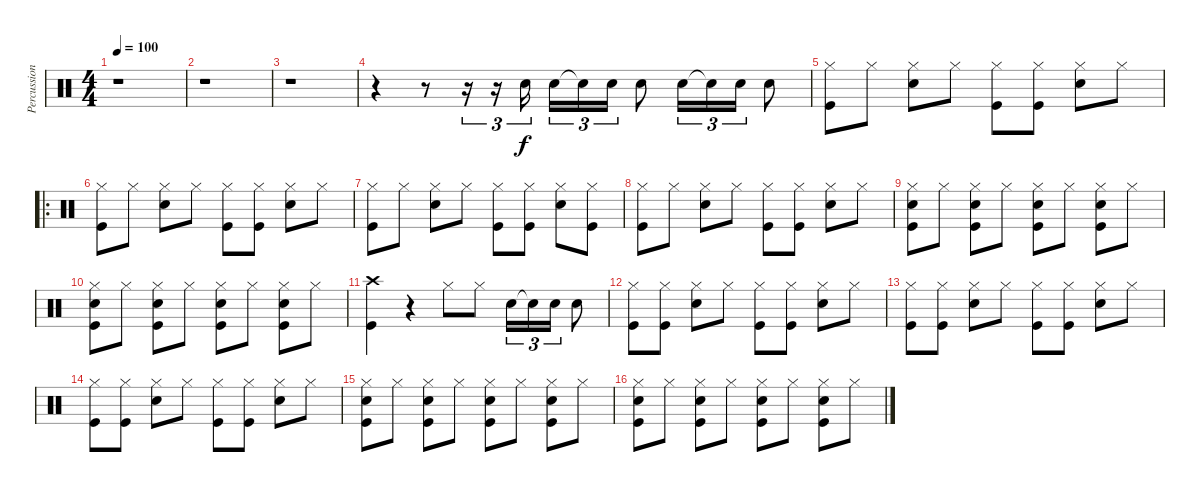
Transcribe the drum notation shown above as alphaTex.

\track ("Percussion" "Percussion") {instrument percussion}
\staff {score}
\articulation defaults
\ts (4 4)
\tempo 100
\clef neutral
\ks c
r.1{dy f} |
r.1 |
r.1 |
r.4 r.8 r.16{tu (3 2)} r.16{tu (3 2)} "Snare (hit) 2".16{tu (3 2)} "Snare (hit) 2".16{tu (3 2)} "Snare (hit)"{t}.16{tu (3 2)} "Snare (hit) 2".16{tu (3 2)} "Snare (hit) 2".8 "Snare (hit) 2".16{tu (3 2)} "Snare (hit)"{t}.16{tu (3 2)} "Snare (hit) 2".16{tu (3 2)} "Snare (hit) 2".8 |
("Hi-Hat (closed)" "Kick (hit)").8 "Hi-Hat (closed)".8 ("Hi-Hat (closed)" "Snare (hit) 2").8 "Hi-Hat (closed)".8 ("Hi-Hat (closed)" "Kick (hit)").8 ("Hi-Hat (closed)" "Kick (hit)").8 ("Hi-Hat (closed)" "Snare (hit) 2").8 "Hi-Hat (closed)".8 |
\ro
("Hi-Hat (closed)" "Kick (hit)").8 "Hi-Hat (closed)".8 ("Hi-Hat (closed)" "Snare (hit) 2").8 "Hi-Hat (closed)".8 ("Hi-Hat (closed)" "Kick (hit)").8 ("Hi-Hat (closed)" "Kick (hit)").8 ("Hi-Hat (closed)" "Snare (hit) 2").8 "Hi-Hat (closed)".8 |
("Hi-Hat (closed)" "Kick (hit)").8 "Hi-Hat (closed)".8 ("Hi-Hat (closed)" "Snare (hit) 2").8 "Hi-Hat (closed)".8 ("Hi-Hat (closed)" "Kick (hit)").8 ("Hi-Hat (closed)" "Kick (hit)").8 ("Hi-Hat (closed)" "Snare (hit) 2").8 ("Hi-Hat (closed)" "Kick (hit)").8 |
("Hi-Hat (closed)" "Kick (hit)").8 "Hi-Hat (closed)".8 ("Hi-Hat (closed)" "Snare (hit) 2").8 "Hi-Hat (closed)".8 ("Hi-Hat (closed)" "Kick (hit)").8 ("Hi-Hat (closed)" "Kick (hit)").8 ("Hi-Hat (closed)" "Snare (hit) 2").8 "Hi-Hat (closed)".8 |
("Hi-Hat (closed)" "Snare (hit) 2" "Kick (hit)").8 "Hi-Hat (closed)".8 ("Hi-Hat (closed)" "Snare (hit) 2" "Kick (hit)").8 "Hi-Hat (closed)".8 ("Hi-Hat (closed)" "Snare (hit) 2" "Kick (hit)").8 "Hi-Hat (closed)".8 ("Hi-Hat (closed)" "Snare (hit) 2" "Kick (hit)").8 "Hi-Hat (closed)".8 |
("Hi-Hat (closed)" "Snare (hit) 2" "Kick (hit)").8 "Hi-Hat (closed)".8 ("Hi-Hat (closed)" "Snare (hit) 2" "Kick (hit)").8 "Hi-Hat (closed)".8 ("Hi-Hat (closed)" "Snare (hit) 2" "Kick (hit)").8 "Hi-Hat (closed)".8 ("Hi-Hat (closed)" "Snare (hit) 2" "Kick (hit)").8 "Hi-Hat (closed)".8 |
("Crash high (hit)" "Kick (hit)").4 r.4 "Hi-Hat (closed)".8 "Hi-Hat (closed)".8 "Snare (hit) 2".16{tu (3 2)} "Snare (hit)"{t}.16{tu (3 2)} "Snare (hit) 2".16{tu (3 2)} "Snare (hit) 2".8 |
("Hi-Hat (closed)" "Kick (hit)").8 ("Hi-Hat (closed)" "Kick (hit)").8 ("Hi-Hat (closed)" "Snare (hit) 2").8 "Hi-Hat (closed)".8 ("Hi-Hat (closed)" "Kick (hit)").8 ("Hi-Hat (closed)" "Kick (hit)").8 ("Hi-Hat (closed)" "Snare (hit) 2").8 "Hi-Hat (closed)".8 |
("Hi-Hat (closed)" "Kick (hit)").8 ("Hi-Hat (closed)" "Kick (hit)").8 ("Hi-Hat (closed)" "Snare (hit) 2").8 "Hi-Hat (closed)".8 ("Hi-Hat (closed)" "Kick (hit)").8 ("Hi-Hat (closed)" "Kick (hit)").8 ("Hi-Hat (closed)" "Snare (hit) 2").8 "Hi-Hat (closed)".8 |
("Hi-Hat (closed)" "Kick (hit)").8 ("Hi-Hat (closed)" "Kick (hit)").8 ("Hi-Hat (closed)" "Snare (hit) 2").8 "Hi-Hat (closed)".8 ("Hi-Hat (closed)" "Kick (hit)").8 ("Hi-Hat (closed)" "Kick (hit)").8 ("Hi-Hat (closed)" "Snare (hit) 2").8 "Hi-Hat (closed)".8 |
("Hi-Hat (closed)" "Snare (hit) 2" "Kick (hit)").8 "Hi-Hat (closed)".8 ("Hi-Hat (closed)" "Snare (hit) 2" "Kick (hit)").8 "Hi-Hat (closed)".8 ("Hi-Hat (closed)" "Snare (hit) 2" "Kick (hit)").8 "Hi-Hat (closed)".8 ("Hi-Hat (closed)" "Snare (hit) 2" "Kick (hit)").8 "Hi-Hat (closed)".8 |
("Hi-Hat (closed)" "Snare (hit) 2" "Kick (hit)").8 "Hi-Hat (closed)".8 ("Hi-Hat (closed)" "Snare (hit) 2" "Kick (hit)").8 "Hi-Hat (closed)".8 ("Hi-Hat (closed)" "Snare (hit) 2" "Kick (hit)").8 "Hi-Hat (closed)".8 ("Hi-Hat (closed)" "Snare (hit) 2" "Kick (hit)").8 "Hi-Hat (closed)".8
